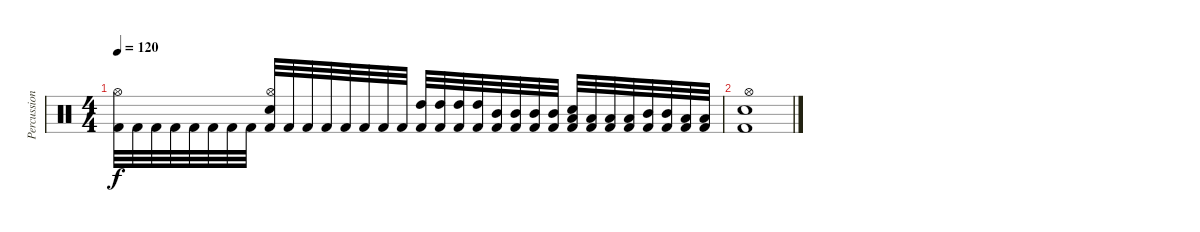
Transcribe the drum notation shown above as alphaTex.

\track ("Percussion" "Percussion") {instrument percussion}
\staff {score}
\articulation defaults
\ts (4 4)
\tempo 120
\clef neutral
\ks c
("Kick (hit) 2" "Hi-Hat (open)").32{dy f} "Kick (hit) 2".32 "Kick (hit) 2".32 "Kick (hit) 2".32 "Kick (hit) 2".32 "Kick (hit) 2".32 "Kick (hit) 2".32 "Kick (hit) 2".32 ("Kick (hit) 2" "Hi-Hat (open)" "Electric Snare (hit)").32 "Kick (hit) 2".32 "Kick (hit) 2".32 "Kick (hit) 2".32 "Kick (hit) 2".32 "Kick (hit) 2".32 "Kick (hit) 2".32 "Kick (hit) 2".32 ("Kick (hit) 2" "High Tom (hit)").32 ("Kick (hit) 2" "High Tom (hit)").32 ("Kick (hit) 2" "High Tom (hit)").32 ("Kick (hit) 2" "High Tom (hit)").32 ("Kick (hit) 2" "Mid Tom (hit)").32 ("Kick (hit) 2" "Mid Tom (hit)").32 ("Kick (hit) 2" "Mid Tom (hit)").32 ("Kick (hit) 2" "Mid Tom (hit)").32 ("Kick (hit) 2" "Low Tom (hit)" "Electric Snare (hit)").32 ("Kick (hit) 2" "Low Tom (hit)").32 ("Kick (hit) 2" "Low Tom (hit)").32 ("Kick (hit) 2" "Low Tom (hit)").32 ("Kick (hit) 2" "Mid Tom (hit)").32 ("Kick (hit) 2" "Mid Tom (hit)").32 ("Kick (hit) 2" "Low Tom (hit)").32 ("Kick (hit) 2" "Low Tom (hit)").32 |
("Electric Snare (hit)" "Kick (hit) 2" "Hi-Hat (open)").1
